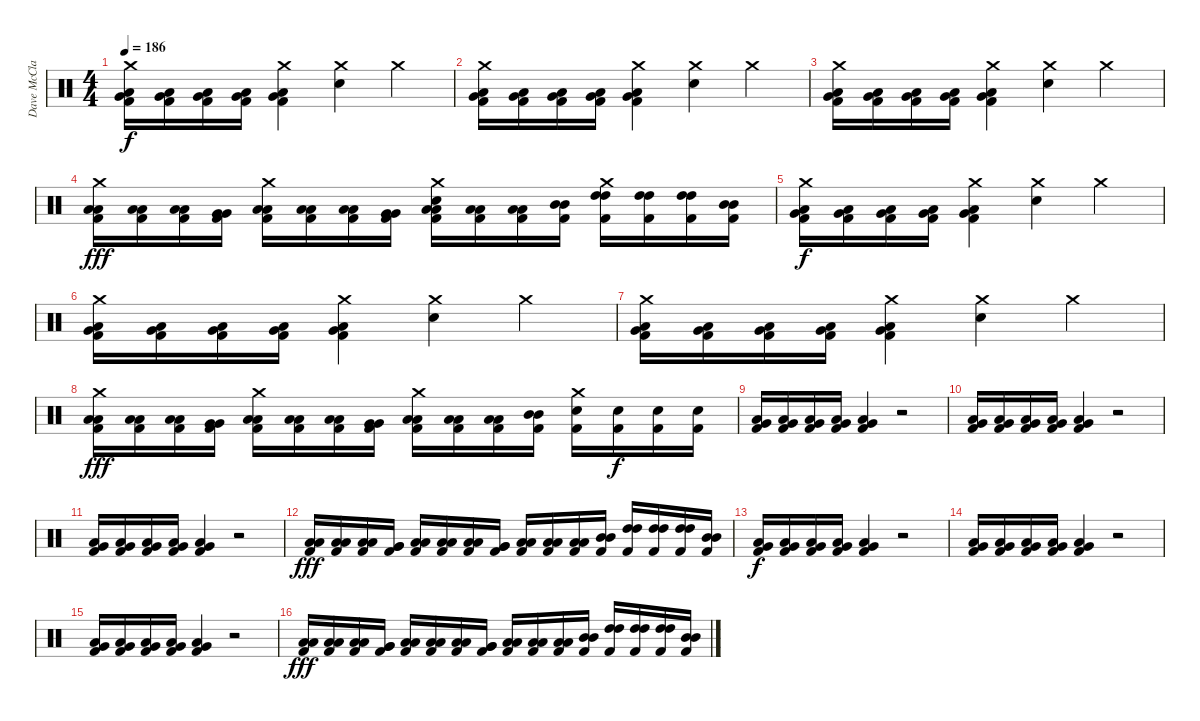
\track ("Dave McClain" "Dave McCla") {instrument percussion}
\staff {score}
\articulation defaults
\ts (4 4)
\tempo 186
\clef neutral
\ks c
("Crash medium (hit)" "Very Low Tom (hit)" "Low Floor Tom (hit)" "Kick (hit) 2").16{dy f} ("Very Low Tom (hit)" "Low Floor Tom (hit)" "Kick (hit) 2").16 ("Very Low Tom (hit)" "Low Floor Tom (hit)" "Kick (hit) 2").16 ("Very Low Tom (hit)" "Low Floor Tom (hit)" "Kick (hit) 2").16 ("Crash medium (hit)" "Very Low Tom (hit)" "Low Floor Tom (hit)" "Kick (hit) 2").4 ("Crash medium (hit)" "Snare (hit) 2").4 "Crash medium (hit)".4 |
("Crash medium (hit)" "Very Low Tom (hit)" "Low Floor Tom (hit)" "Kick (hit) 2").16 ("Very Low Tom (hit)" "Low Floor Tom (hit)" "Kick (hit) 2").16 ("Very Low Tom (hit)" "Low Floor Tom (hit)" "Kick (hit) 2").16 ("Very Low Tom (hit)" "Low Floor Tom (hit)" "Kick (hit) 2").16 ("Crash medium (hit)" "Very Low Tom (hit)" "Low Floor Tom (hit)" "Kick (hit) 2").4 ("Crash medium (hit)" "Snare (hit) 2").4 "Crash medium (hit)".4 |
("Crash medium (hit)" "Very Low Tom (hit)" "Low Floor Tom (hit)" "Kick (hit) 2").16 ("Very Low Tom (hit)" "Low Floor Tom (hit)" "Kick (hit) 2").16 ("Very Low Tom (hit)" "Low Floor Tom (hit)" "Kick (hit) 2").16 ("Very Low Tom (hit)" "Low Floor Tom (hit)" "Kick (hit) 2").16 ("Crash medium (hit)" "Very Low Tom (hit)" "Low Floor Tom (hit)" "Kick (hit) 2").4 ("Crash medium (hit)" "Snare (hit) 2").4 "Crash medium (hit)".4 |
("Crash medium (hit)" "Low Tom (hit)" "Low Tom (hit)" "Kick (hit) 2").16{dy fff} ("Low Tom (hit)" "Low Tom (hit)" "Kick (hit) 2").16 ("Low Tom (hit)" "Low Tom (hit)" "Kick (hit) 2").16 ("Very Low Tom (hit)" "Very Low Tom (hit)" "Kick (hit) 2").16 ("Crash medium (hit)" "Low Floor Tom (hit)" "Low Floor Tom (hit)" "Kick (hit) 2").16 ("Low Floor Tom (hit)" "Low Floor Tom (hit)" "Kick (hit) 2").16 ("Low Floor Tom (hit)" "Low Floor Tom (hit)" "Kick (hit) 2").16 ("Very Low Tom (hit)" "Very Low Tom (hit)" "Kick (hit) 2").16 ("Snare (hit) 2" "Crash medium (hit)" "Low Tom (hit)" "Low Tom (hit)" "Kick (hit) 2").16 ("Low Tom (hit)" "Low Tom (hit)" "Kick (hit) 2").16 ("Low Tom (hit)" "Low Tom (hit)" "Kick (hit) 2").16 ("Mid Tom (hit)" "Mid Tom (hit)" "Kick (hit) 2").16 ("Crash medium (hit)" "High Tom (hit)" "High Tom (hit)" "Kick (hit) 2").16 ("High Tom (hit)" "High Tom (hit)" "Kick (hit) 2").16 ("High Tom (hit)" "High Tom (hit)" "Kick (hit) 2").16 ("Mid Tom (hit)" "Mid Tom (hit)" "Kick (hit) 2").16 |
("Crash medium (hit)" "Very Low Tom (hit)" "Low Floor Tom (hit)" "Kick (hit) 2").16{dy f} ("Very Low Tom (hit)" "Low Floor Tom (hit)" "Kick (hit) 2").16 ("Very Low Tom (hit)" "Low Floor Tom (hit)" "Kick (hit) 2").16 ("Very Low Tom (hit)" "Low Floor Tom (hit)" "Kick (hit) 2").16 ("Crash medium (hit)" "Very Low Tom (hit)" "Low Floor Tom (hit)" "Kick (hit) 2").4 ("Crash medium (hit)" "Snare (hit) 2").4 "Crash medium (hit)".4 |
("Crash medium (hit)" "Very Low Tom (hit)" "Low Floor Tom (hit)" "Kick (hit) 2").16 ("Very Low Tom (hit)" "Low Floor Tom (hit)" "Kick (hit) 2").16 ("Very Low Tom (hit)" "Low Floor Tom (hit)" "Kick (hit) 2").16 ("Very Low Tom (hit)" "Low Floor Tom (hit)" "Kick (hit) 2").16 ("Crash medium (hit)" "Very Low Tom (hit)" "Low Floor Tom (hit)" "Kick (hit) 2").4 ("Crash medium (hit)" "Snare (hit) 2").4 "Crash medium (hit)".4 |
("Crash medium (hit)" "Very Low Tom (hit)" "Low Floor Tom (hit)" "Kick (hit) 2").16 ("Very Low Tom (hit)" "Low Floor Tom (hit)" "Kick (hit) 2").16 ("Very Low Tom (hit)" "Low Floor Tom (hit)" "Kick (hit) 2").16 ("Very Low Tom (hit)" "Low Floor Tom (hit)" "Kick (hit) 2").16 ("Crash medium (hit)" "Very Low Tom (hit)" "Low Floor Tom (hit)" "Kick (hit) 2").4 ("Crash medium (hit)" "Snare (hit) 2").4 "Crash medium (hit)".4 |
("Crash medium (hit)" "Low Tom (hit)" "Low Tom (hit)" "Kick (hit) 2").16{dy fff} ("Low Tom (hit)" "Low Tom (hit)" "Kick (hit) 2").16 ("Low Tom (hit)" "Low Tom (hit)" "Kick (hit) 2").16 ("Very Low Tom (hit)" "Very Low Tom (hit)" "Kick (hit) 2").16 ("Crash medium (hit)" "Low Floor Tom (hit)" "Low Floor Tom (hit)" "Kick (hit) 2").16 ("Low Floor Tom (hit)" "Low Floor Tom (hit)" "Kick (hit) 2").16 ("Low Floor Tom (hit)" "Low Floor Tom (hit)" "Kick (hit) 2").16 ("Very Low Tom (hit)" "Very Low Tom (hit)" "Kick (hit) 2").16 ("Crash medium (hit)" "Low Tom (hit)" "Low Tom (hit)" "Kick (hit) 2").16 ("Low Tom (hit)" "Low Tom (hit)" "Kick (hit) 2").16 ("Low Tom (hit)" "Low Tom (hit)" "Kick (hit) 2").16 ("Mid Tom (hit)" "Mid Tom (hit)" "Kick (hit) 2").16 ("Crash medium (hit)" "Snare (hit) 2" "Kick (hit) 2").16 ("Snare (hit) 2" "Kick (hit) 2").16{dy f} ("Snare (hit) 2" "Kick (hit) 2").16 ("Snare (hit) 2" "Kick (hit) 2").16 |
("Very Low Tom (hit)" "Low Floor Tom (hit)" "Kick (hit) 2").16 ("Very Low Tom (hit)" "Low Floor Tom (hit)" "Kick (hit) 2").16 ("Very Low Tom (hit)" "Low Floor Tom (hit)" "Kick (hit) 2").16 ("Very Low Tom (hit)" "Low Floor Tom (hit)" "Kick (hit) 2").16 ("Very Low Tom (hit)" "Low Floor Tom (hit)" "Kick (hit) 2").4 r.2 |
("Very Low Tom (hit)" "Low Floor Tom (hit)" "Kick (hit) 2").16 ("Very Low Tom (hit)" "Low Floor Tom (hit)" "Kick (hit) 2").16 ("Very Low Tom (hit)" "Low Floor Tom (hit)" "Kick (hit) 2").16 ("Very Low Tom (hit)" "Low Floor Tom (hit)" "Kick (hit) 2").16 ("Very Low Tom (hit)" "Low Floor Tom (hit)" "Kick (hit) 2").4 r.2 |
("Very Low Tom (hit)" "Low Floor Tom (hit)" "Kick (hit) 2").16 ("Very Low Tom (hit)" "Low Floor Tom (hit)" "Kick (hit) 2").16 ("Very Low Tom (hit)" "Low Floor Tom (hit)" "Kick (hit) 2").16 ("Very Low Tom (hit)" "Low Floor Tom (hit)" "Kick (hit) 2").16 ("Very Low Tom (hit)" "Low Floor Tom (hit)" "Kick (hit) 2").4 r.2 |
("Low Tom (hit)" "Low Tom (hit)" "Kick (hit) 2").16{dy fff} ("Low Tom (hit)" "Low Tom (hit)" "Kick (hit) 2").16 ("Low Tom (hit)" "Low Tom (hit)" "Kick (hit) 2").16 ("Very Low Tom (hit)" "Very Low Tom (hit)" "Kick (hit) 2").16 ("Low Floor Tom (hit)" "Low Floor Tom (hit)" "Kick (hit) 2").16 ("Low Floor Tom (hit)" "Low Floor Tom (hit)" "Kick (hit) 2").16 ("Low Floor Tom (hit)" "Low Floor Tom (hit)" "Kick (hit) 2").16 ("Very Low Tom (hit)" "Very Low Tom (hit)" "Kick (hit) 2").16 ("Low Tom (hit)" "Low Tom (hit)" "Kick (hit) 2").16 ("Low Tom (hit)" "Low Tom (hit)" "Kick (hit) 2").16 ("Low Tom (hit)" "Low Tom (hit)" "Kick (hit) 2").16 ("Mid Tom (hit)" "Mid Tom (hit)" "Kick (hit) 2").16 ("High Tom (hit)" "High Tom (hit)" "Kick (hit) 2").16 ("High Tom (hit)" "High Tom (hit)" "Kick (hit) 2").16 ("High Tom (hit)" "High Tom (hit)" "Kick (hit) 2").16 ("Mid Tom (hit)" "Mid Tom (hit)" "Kick (hit) 2").16 |
("Very Low Tom (hit)" "Low Floor Tom (hit)" "Kick (hit) 2").16{dy f} ("Very Low Tom (hit)" "Low Floor Tom (hit)" "Kick (hit) 2").16 ("Very Low Tom (hit)" "Low Floor Tom (hit)" "Kick (hit) 2").16 ("Very Low Tom (hit)" "Low Floor Tom (hit)" "Kick (hit) 2").16 ("Very Low Tom (hit)" "Low Floor Tom (hit)" "Kick (hit) 2").4 r.2 |
("Very Low Tom (hit)" "Low Floor Tom (hit)" "Kick (hit) 2").16 ("Very Low Tom (hit)" "Low Floor Tom (hit)" "Kick (hit) 2").16 ("Very Low Tom (hit)" "Low Floor Tom (hit)" "Kick (hit) 2").16 ("Very Low Tom (hit)" "Low Floor Tom (hit)" "Kick (hit) 2").16 ("Very Low Tom (hit)" "Low Floor Tom (hit)" "Kick (hit) 2").4 r.2 |
("Very Low Tom (hit)" "Low Floor Tom (hit)" "Kick (hit) 2").16 ("Very Low Tom (hit)" "Low Floor Tom (hit)" "Kick (hit) 2").16 ("Very Low Tom (hit)" "Low Floor Tom (hit)" "Kick (hit) 2").16 ("Very Low Tom (hit)" "Low Floor Tom (hit)" "Kick (hit) 2").16 ("Very Low Tom (hit)" "Low Floor Tom (hit)" "Kick (hit) 2").4 r.2 |
("Low Tom (hit)" "Low Tom (hit)" "Kick (hit) 2").16{dy fff} ("Low Tom (hit)" "Low Tom (hit)" "Kick (hit) 2").16 ("Low Tom (hit)" "Low Tom (hit)" "Kick (hit) 2").16 ("Very Low Tom (hit)" "Very Low Tom (hit)" "Kick (hit) 2").16 ("Low Floor Tom (hit)" "Low Floor Tom (hit)" "Kick (hit) 2").16 ("Low Floor Tom (hit)" "Low Floor Tom (hit)" "Kick (hit) 2").16 ("Low Floor Tom (hit)" "Low Floor Tom (hit)" "Kick (hit) 2").16 ("Very Low Tom (hit)" "Very Low Tom (hit)" "Kick (hit) 2").16 ("Low Tom (hit)" "Low Tom (hit)" "Kick (hit) 2").16 ("Low Tom (hit)" "Low Tom (hit)" "Kick (hit) 2").16 ("Low Tom (hit)" "Low Tom (hit)" "Kick (hit) 2").16 ("Mid Tom (hit)" "Mid Tom (hit)" "Kick (hit) 2").16 ("High Tom (hit)" "High Tom (hit)" "Kick (hit) 2").16 ("High Tom (hit)" "High Tom (hit)" "Kick (hit) 2").16 ("High Tom (hit)" "High Tom (hit)" "Kick (hit) 2").16 ("Mid Tom (hit)" "Mid Tom (hit)" "Kick (hit) 2").16
